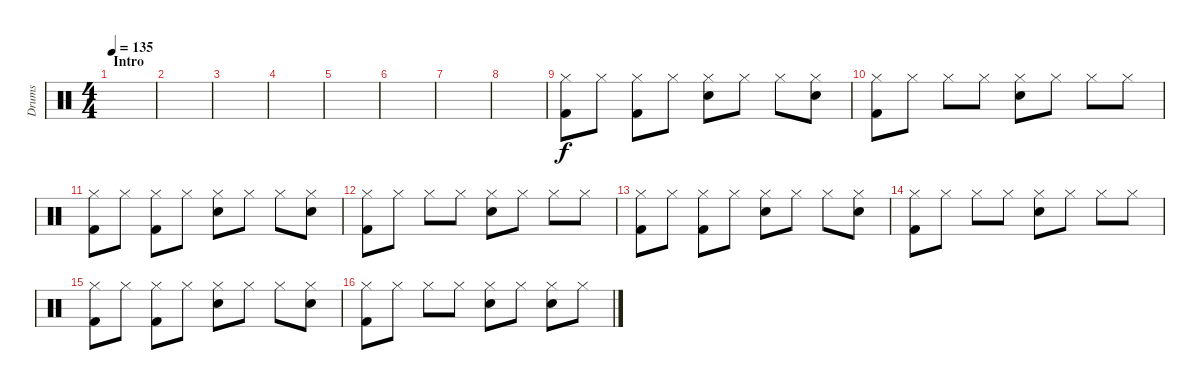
\track ("Drums" "Drums") {instrument percussion}
\staff {score}
\articulation defaults
\ts (4 4)
\section ("" "Intro")
\tempo 135
\clef neutral
\ks c
|
|
|
|
|
|
|
|
("Kick (hit) 2" "Hi-Hat (closed)").8 "Hi-Hat (closed)".8 ("Kick (hit) 2" "Hi-Hat (closed)").8 "Hi-Hat (closed)".8 ("Snare (hit) 2" "Hi-Hat (closed)").8 "Hi-Hat (closed)".8 "Hi-Hat (closed)".8 ("Snare (hit) 2" "Hi-Hat (closed)").8 |
("Kick (hit) 2" "Hi-Hat (closed)").8 "Hi-Hat (closed)".8 "Hi-Hat (closed)".8 "Hi-Hat (closed)".8 ("Snare (hit) 2" "Hi-Hat (closed)").8 "Hi-Hat (closed)".8 "Hi-Hat (closed)".8 "Hi-Hat (closed)".8 |
("Kick (hit) 2" "Hi-Hat (closed)").8 "Hi-Hat (closed)".8 ("Kick (hit) 2" "Hi-Hat (closed)").8 "Hi-Hat (closed)".8 ("Snare (hit) 2" "Hi-Hat (closed)").8 "Hi-Hat (closed)".8 "Hi-Hat (closed)".8 ("Snare (hit) 2" "Hi-Hat (closed)").8 |
("Kick (hit) 2" "Hi-Hat (closed)").8 "Hi-Hat (closed)".8 "Hi-Hat (closed)".8 "Hi-Hat (closed)".8 ("Snare (hit) 2" "Hi-Hat (closed)").8 "Hi-Hat (closed)".8 "Hi-Hat (closed)".8 "Hi-Hat (closed)".8 |
("Kick (hit) 2" "Hi-Hat (closed)").8 "Hi-Hat (closed)".8 ("Kick (hit) 2" "Hi-Hat (closed)").8 "Hi-Hat (closed)".8 ("Snare (hit) 2" "Hi-Hat (closed)").8 "Hi-Hat (closed)".8 "Hi-Hat (closed)".8 ("Snare (hit) 2" "Hi-Hat (closed)").8 |
("Kick (hit) 2" "Hi-Hat (closed)").8 "Hi-Hat (closed)".8 "Hi-Hat (closed)".8 "Hi-Hat (closed)".8 ("Snare (hit) 2" "Hi-Hat (closed)").8 "Hi-Hat (closed)".8 "Hi-Hat (closed)".8 "Hi-Hat (closed)".8 |
("Kick (hit) 2" "Hi-Hat (closed)").8 "Hi-Hat (closed)".8 ("Kick (hit) 2" "Hi-Hat (closed)").8 "Hi-Hat (closed)".8 ("Snare (hit) 2" "Hi-Hat (closed)").8 "Hi-Hat (closed)".8 "Hi-Hat (closed)".8 ("Snare (hit) 2" "Hi-Hat (closed)").8 |
("Kick (hit) 2" "Hi-Hat (closed)").8 "Hi-Hat (closed)".8 "Hi-Hat (closed)".8 "Hi-Hat (closed)".8 ("Snare (hit) 2" "Hi-Hat (closed)").8 "Hi-Hat (closed)".8 ("Snare (hit) 2" "Hi-Hat (closed)").8 "Hi-Hat (closed)".8
